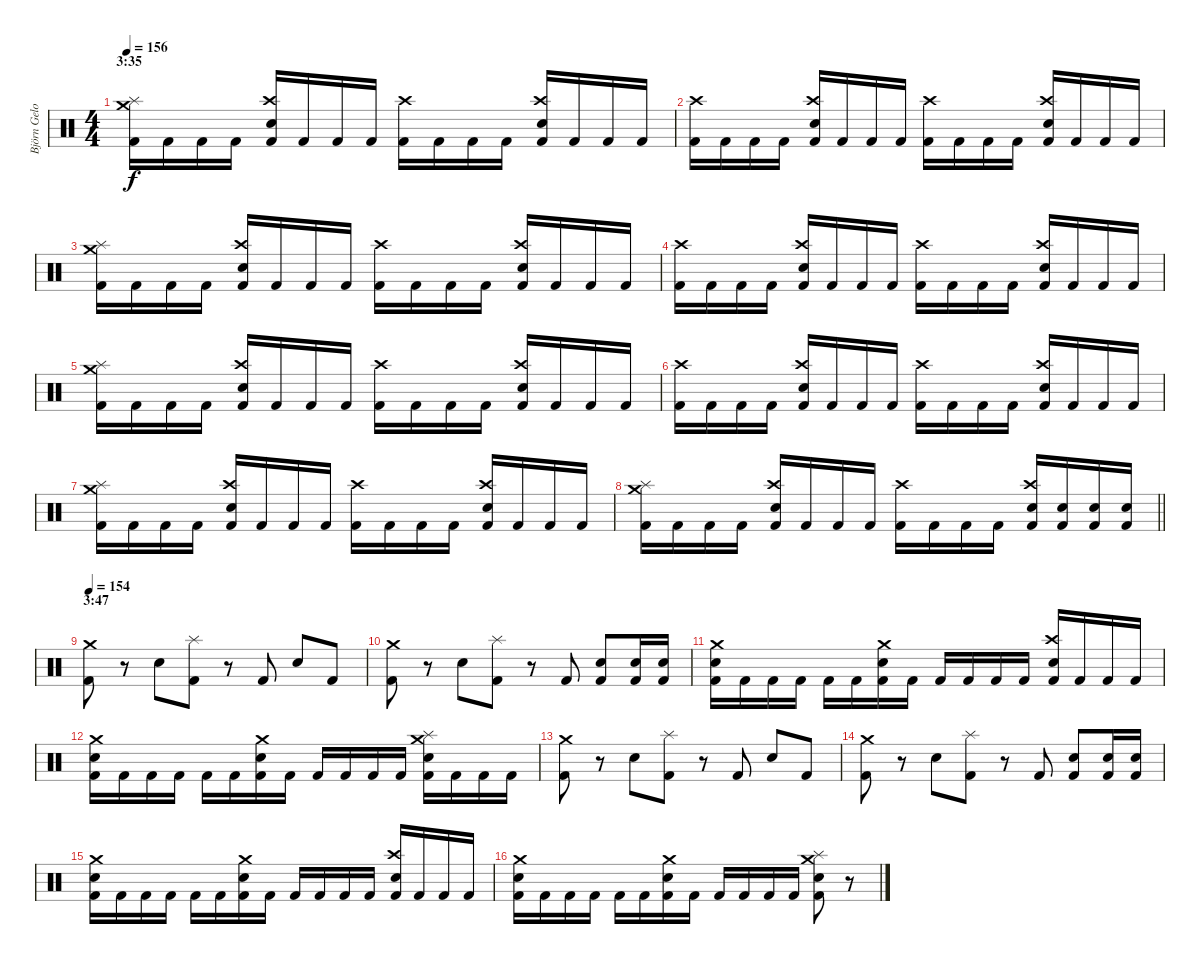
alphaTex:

\track ("Björn Gelotte" "Björn Gelo") {instrument percussion}
\staff {score}
\articulation defaults
\ts (4 4)
\section ("" "3:35")
\tempo 156
\clef neutral
\ks c
("Crash medium (hit)" "Splash (hit)" "Kick (hit) 2").16{dy f} "Kick (hit) 2".16 "Kick (hit) 2".16 "Kick (hit) 2".16 ("Crash high (hit)" "Electric Snare (hit)" "Kick (hit) 2").16 "Kick (hit) 2".16 "Kick (hit) 2".16 "Kick (hit) 2".16 ("Crash high (hit)" "Kick (hit) 2").16 "Kick (hit) 2".16 "Kick (hit) 2".16 "Kick (hit) 2".16 ("Crash high (hit)" "Electric Snare (hit)" "Kick (hit) 2").16 "Kick (hit) 2".16 "Kick (hit) 2".16 "Kick (hit) 2".16 |
("Crash high (hit)" "Kick (hit) 2").16 "Kick (hit) 2".16 "Kick (hit) 2".16 "Kick (hit) 2".16 ("Crash high (hit)" "Electric Snare (hit)" "Kick (hit) 2").16 "Kick (hit) 2".16 "Kick (hit) 2".16 "Kick (hit) 2".16 ("Crash high (hit)" "Kick (hit) 2").16 "Kick (hit) 2".16 "Kick (hit) 2".16 "Kick (hit) 2".16 ("Crash high (hit)" "Electric Snare (hit)" "Kick (hit) 2").16 "Kick (hit) 2".16 "Kick (hit) 2".16 "Kick (hit) 2".16 |
("Crash medium (hit)" "Splash (hit)" "Kick (hit) 2").16 "Kick (hit) 2".16 "Kick (hit) 2".16 "Kick (hit) 2".16 ("Crash high (hit)" "Electric Snare (hit)" "Kick (hit) 2").16 "Kick (hit) 2".16 "Kick (hit) 2".16 "Kick (hit) 2".16 ("Crash high (hit)" "Kick (hit) 2").16 "Kick (hit) 2".16 "Kick (hit) 2".16 "Kick (hit) 2".16 ("Crash high (hit)" "Electric Snare (hit)" "Kick (hit) 2").16 "Kick (hit) 2".16 "Kick (hit) 2".16 "Kick (hit) 2".16 |
("Crash high (hit)" "Kick (hit) 2").16 "Kick (hit) 2".16 "Kick (hit) 2".16 "Kick (hit) 2".16 ("Crash high (hit)" "Electric Snare (hit)" "Kick (hit) 2").16 "Kick (hit) 2".16 "Kick (hit) 2".16 "Kick (hit) 2".16 ("Crash high (hit)" "Kick (hit) 2").16 "Kick (hit) 2".16 "Kick (hit) 2".16 "Kick (hit) 2".16 ("Crash high (hit)" "Electric Snare (hit)" "Kick (hit) 2").16 "Kick (hit) 2".16 "Kick (hit) 2".16 "Kick (hit) 2".16 |
("Crash medium (hit)" "Splash (hit)" "Kick (hit) 2").16 "Kick (hit) 2".16 "Kick (hit) 2".16 "Kick (hit) 2".16 ("Crash high (hit)" "Electric Snare (hit)" "Kick (hit) 2").16 "Kick (hit) 2".16 "Kick (hit) 2".16 "Kick (hit) 2".16 ("Crash high (hit)" "Kick (hit) 2").16 "Kick (hit) 2".16 "Kick (hit) 2".16 "Kick (hit) 2".16 ("Crash high (hit)" "Electric Snare (hit)" "Kick (hit) 2").16 "Kick (hit) 2".16 "Kick (hit) 2".16 "Kick (hit) 2".16 |
("Crash high (hit)" "Kick (hit) 2").16 "Kick (hit) 2".16 "Kick (hit) 2".16 "Kick (hit) 2".16 ("Crash high (hit)" "Electric Snare (hit)" "Kick (hit) 2").16 "Kick (hit) 2".16 "Kick (hit) 2".16 "Kick (hit) 2".16 ("Crash high (hit)" "Kick (hit) 2").16 "Kick (hit) 2".16 "Kick (hit) 2".16 "Kick (hit) 2".16 ("Crash high (hit)" "Electric Snare (hit)" "Kick (hit) 2").16 "Kick (hit) 2".16 "Kick (hit) 2".16 "Kick (hit) 2".16 |
("Crash medium (hit)" "Splash (hit)" "Kick (hit) 2").16 "Kick (hit) 2".16 "Kick (hit) 2".16 "Kick (hit) 2".16 ("Crash high (hit)" "Electric Snare (hit)" "Kick (hit) 2").16 "Kick (hit) 2".16 "Kick (hit) 2".16 "Kick (hit) 2".16 ("Crash high (hit)" "Kick (hit) 2").16 "Kick (hit) 2".16 "Kick (hit) 2".16 "Kick (hit) 2".16 ("Crash high (hit)" "Electric Snare (hit)" "Kick (hit) 2").16 "Kick (hit) 2".16 "Kick (hit) 2".16 "Kick (hit) 2".16 |
\barLineRight lightlight
("Crash medium (hit)" "Splash (hit)" "Kick (hit) 2").16 "Kick (hit) 2".16 "Kick (hit) 2".16 "Kick (hit) 2".16 ("Crash high (hit)" "Electric Snare (hit)" "Kick (hit) 2").16 "Kick (hit) 2".16 "Kick (hit) 2".16 "Kick (hit) 2".16 ("Crash high (hit)" "Kick (hit) 2").16 "Kick (hit) 2".16 "Kick (hit) 2".16 "Kick (hit) 2".16 ("Crash high (hit)" "Electric Snare (hit)" "Kick (hit) 2").16 ("Electric Snare (hit)" "Kick (hit) 2").16 ("Electric Snare (hit)" "Kick (hit) 2").16 ("Electric Snare (hit)" "Kick (hit) 2").16 |
\section ("" "3:47")
\tempo 154
("Crash medium (hit)" "Kick (hit) 2").8 r.8 "Electric Snare (hit)".8 ("Splash (hit)" "Kick (hit) 2").8 r.8 "Kick (hit) 2".8 "Electric Snare (hit)".8 "Kick (hit) 2".8 |
("Crash medium (hit)" "Kick (hit) 2").8 r.8 "Electric Snare (hit)".8 ("Splash (hit)" "Kick (hit) 2").8 r.8 "Kick (hit) 2".8 ("Electric Snare (hit)" "Kick (hit) 2").8 ("Electric Snare (hit)" "Kick (hit) 2").16 ("Electric Snare (hit)" "Kick (hit) 2").16 |
("Crash medium (hit)" "Electric Snare (hit)" "Kick (hit) 2").16 "Kick (hit) 2".16 "Kick (hit) 2".16 "Kick (hit) 2".16 "Kick (hit) 2".16 "Kick (hit) 2".16 ("Crash medium (hit)" "Electric Snare (hit)" "Kick (hit) 2").16 "Kick (hit) 2".16 "Kick (hit) 2".16 "Kick (hit) 2".16 "Kick (hit) 2".16 "Kick (hit) 2".16 ("Crash high (hit)" "Electric Snare (hit)" "Kick (hit) 2").16 "Kick (hit) 2".16 "Kick (hit) 2".16 "Kick (hit) 2".16 |
("Crash medium (hit)" "Electric Snare (hit)" "Kick (hit) 2").16 "Kick (hit) 2".16 "Kick (hit) 2".16 "Kick (hit) 2".16 "Kick (hit) 2".16 "Kick (hit) 2".16 ("Crash medium (hit)" "Electric Snare (hit)" "Kick (hit) 2").16 "Kick (hit) 2".16 "Kick (hit) 2".16 "Kick (hit) 2".16 "Kick (hit) 2".16 "Kick (hit) 2".16 ("Crash medium (hit)" "Splash (hit)" "Electric Snare (hit)" "Kick (hit) 2").16 "Kick (hit) 2".16 "Kick (hit) 2".16 "Kick (hit) 2".16 |
("Crash medium (hit)" "Kick (hit) 2").8 r.8 "Electric Snare (hit)".8 ("Splash (hit)" "Kick (hit) 2").8 r.8 "Kick (hit) 2".8 "Electric Snare (hit)".8 "Kick (hit) 2".8 |
("Crash medium (hit)" "Kick (hit) 2").8 r.8 "Electric Snare (hit)".8 ("Splash (hit)" "Kick (hit) 2").8 r.8 "Kick (hit) 2".8 ("Electric Snare (hit)" "Kick (hit) 2").8 ("Electric Snare (hit)" "Kick (hit) 2").16 ("Electric Snare (hit)" "Kick (hit) 2").16 |
("Crash medium (hit)" "Electric Snare (hit)" "Kick (hit) 2").16 "Kick (hit) 2".16 "Kick (hit) 2".16 "Kick (hit) 2".16 "Kick (hit) 2".16 "Kick (hit) 2".16 ("Crash medium (hit)" "Electric Snare (hit)" "Kick (hit) 2").16 "Kick (hit) 2".16 "Kick (hit) 2".16 "Kick (hit) 2".16 "Kick (hit) 2".16 "Kick (hit) 2".16 ("Crash high (hit)" "Electric Snare (hit)" "Kick (hit) 2").16 "Kick (hit) 2".16 "Kick (hit) 2".16 "Kick (hit) 2".16 |
("Crash medium (hit)" "Electric Snare (hit)" "Kick (hit) 2").16 "Kick (hit) 2".16 "Kick (hit) 2".16 "Kick (hit) 2".16 "Kick (hit) 2".16 "Kick (hit) 2".16 ("Crash medium (hit)" "Electric Snare (hit)" "Kick (hit) 2").16 "Kick (hit) 2".16 "Kick (hit) 2".16 "Kick (hit) 2".16 "Kick (hit) 2".16 "Kick (hit) 2".16 ("Crash medium (hit)" "Splash (hit)" "Electric Snare (hit)" "Kick (hit) 2").8 r.8
